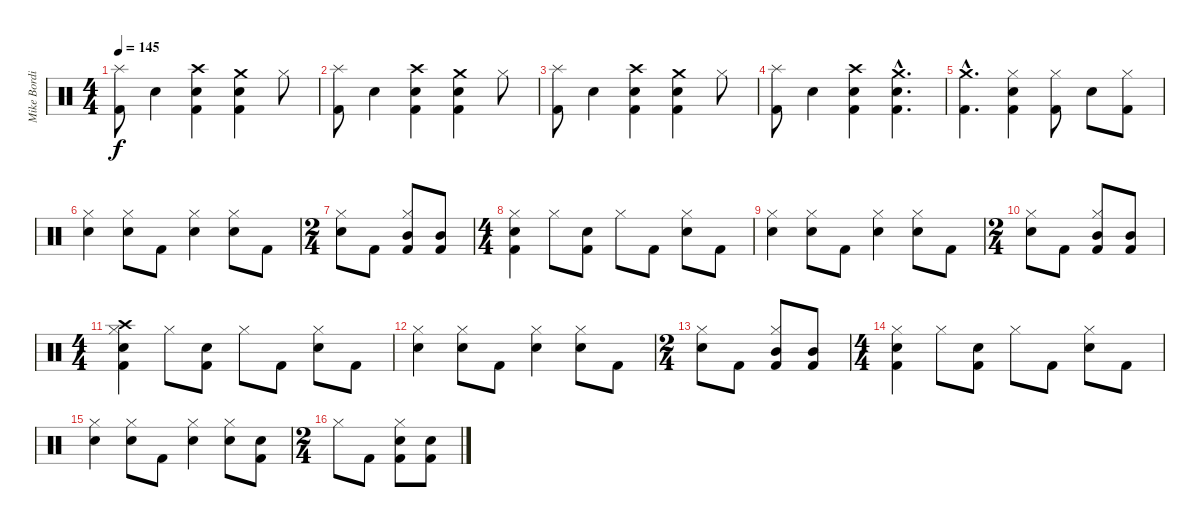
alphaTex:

\track ("Mike Bordin" "Mike Bordi") {instrument percussion}
\staff {score}
\articulation defaults
\ts (4 4)
\tempo 145
\clef neutral
\ks c
("Splash (hit)" "Kick (hit) 2").8{dy f} "Electric Snare (hit)".4 ("Crash high (hit)" "Electric Snare (hit)" "Kick (hit) 2").4 ("Crash medium (hit)" "Electric Snare (hit)" "Kick (hit) 2").4 "Hi-Hat (closed)".8 |
("Splash (hit)" "Kick (hit) 2").8 "Electric Snare (hit)".4 ("Crash high (hit)" "Electric Snare (hit)" "Kick (hit) 2").4 ("Crash medium (hit)" "Electric Snare (hit)" "Kick (hit) 2").4 "Hi-Hat (closed)".8 |
("Splash (hit)" "Kick (hit) 2").8 "Electric Snare (hit)".4 ("Crash high (hit)" "Electric Snare (hit)" "Kick (hit) 2").4 ("Crash medium (hit)" "Electric Snare (hit)" "Kick (hit) 2").4 "Hi-Hat (closed)".8 |
("Splash (hit)" "Kick (hit) 2").8 "Electric Snare (hit)".4 ("Crash high (hit)" "Electric Snare (hit)" "Kick (hit) 2").4 ("Crash medium (hit)"{hac} "Electric Snare (hit)"{hac} "Kick (hit) 2"{hac}).4{d} |
("Crash medium (hit)"{hac} "Kick (hit) 2"{hac}).4{d} ("Hi-Hat (closed)" "Electric Snare (hit)" "Kick (hit) 2").4 ("Hi-Hat (closed)" "Kick (hit) 2").8 "Electric Snare (hit)".8 ("Hi-Hat (closed)" "Kick (hit) 2").8 |
("Hi-Hat (closed)" "Electric Snare (hit)").4 ("Hi-Hat (closed)" "Electric Snare (hit)").8 "Kick (hit) 2".8 ("Hi-Hat (closed)" "Electric Snare (hit)").4 ("Hi-Hat (closed)" "Electric Snare (hit)").8 "Kick (hit) 2".8 |
\ts (2 4)
("Hi-Hat (closed)" "Electric Snare (hit)").8 "Kick (hit) 2".8 ("Hi-Hat (closed)" "Mid Tom (hit)" "Kick (hit) 2").8 ("Mid Tom (hit)" "Kick (hit) 2").8 |
\ts (4 4)
("Hi-Hat (closed)" "Electric Snare (hit)" "Kick (hit) 2").4 "Hi-Hat (closed)".8 ("Electric Snare (hit)" "Kick (hit) 2").8 "Hi-Hat (closed)".8 "Kick (hit) 2".8 ("Hi-Hat (closed)" "Electric Snare (hit)").8 "Kick (hit) 2".8 |
("Hi-Hat (closed)" "Electric Snare (hit)").4 ("Hi-Hat (closed)" "Electric Snare (hit)").8 "Kick (hit) 2".8 ("Hi-Hat (closed)" "Electric Snare (hit)").4 ("Hi-Hat (closed)" "Electric Snare (hit)").8 "Kick (hit) 2".8 |
\ts (2 4)
("Hi-Hat (closed)" "Electric Snare (hit)").8 "Kick (hit) 2".8 ("Hi-Hat (closed)" "Mid Tom (hit)" "Kick (hit) 2").8 ("Mid Tom (hit)" "Kick (hit) 2").8 |
\ts (4 4)
("Crash high (hit)" "Hi-Hat (closed)" "Electric Snare (hit)" "Kick (hit) 2").4 "Hi-Hat (closed)".8 ("Electric Snare (hit)" "Kick (hit) 2").8 "Hi-Hat (closed)".8 "Kick (hit) 2".8 ("Hi-Hat (closed)" "Electric Snare (hit)").8 "Kick (hit) 2".8 |
("Hi-Hat (closed)" "Electric Snare (hit)").4 ("Hi-Hat (closed)" "Electric Snare (hit)").8 "Kick (hit) 2".8 ("Hi-Hat (closed)" "Electric Snare (hit)").4 ("Hi-Hat (closed)" "Electric Snare (hit)").8 "Kick (hit) 2".8 |
\ts (2 4)
("Hi-Hat (closed)" "Electric Snare (hit)").8 "Kick (hit) 2".8 ("Hi-Hat (closed)" "Mid Tom (hit)" "Kick (hit) 2").8 ("Mid Tom (hit)" "Kick (hit) 2").8 |
\ts (4 4)
("Hi-Hat (closed)" "Electric Snare (hit)" "Kick (hit) 2").4 "Hi-Hat (closed)".8 ("Electric Snare (hit)" "Kick (hit) 2").8 "Hi-Hat (closed)".8 "Kick (hit) 2".8 ("Hi-Hat (closed)" "Electric Snare (hit)").8 "Kick (hit) 2".8 |
("Hi-Hat (closed)" "Electric Snare (hit)").4 ("Hi-Hat (closed)" "Electric Snare (hit)").8 "Kick (hit) 2".8 ("Hi-Hat (closed)" "Electric Snare (hit)").4 ("Hi-Hat (closed)" "Electric Snare (hit)").8 ("Electric Snare (hit)" "Kick (hit) 2").8 |
\ts (2 4)
"Hi-Hat (closed)".8 "Kick (hit) 2".8 ("Hi-Hat (closed)" "Electric Snare (hit)" "Kick (hit) 2").8 ("Electric Snare (hit)" "Kick (hit) 2").8
